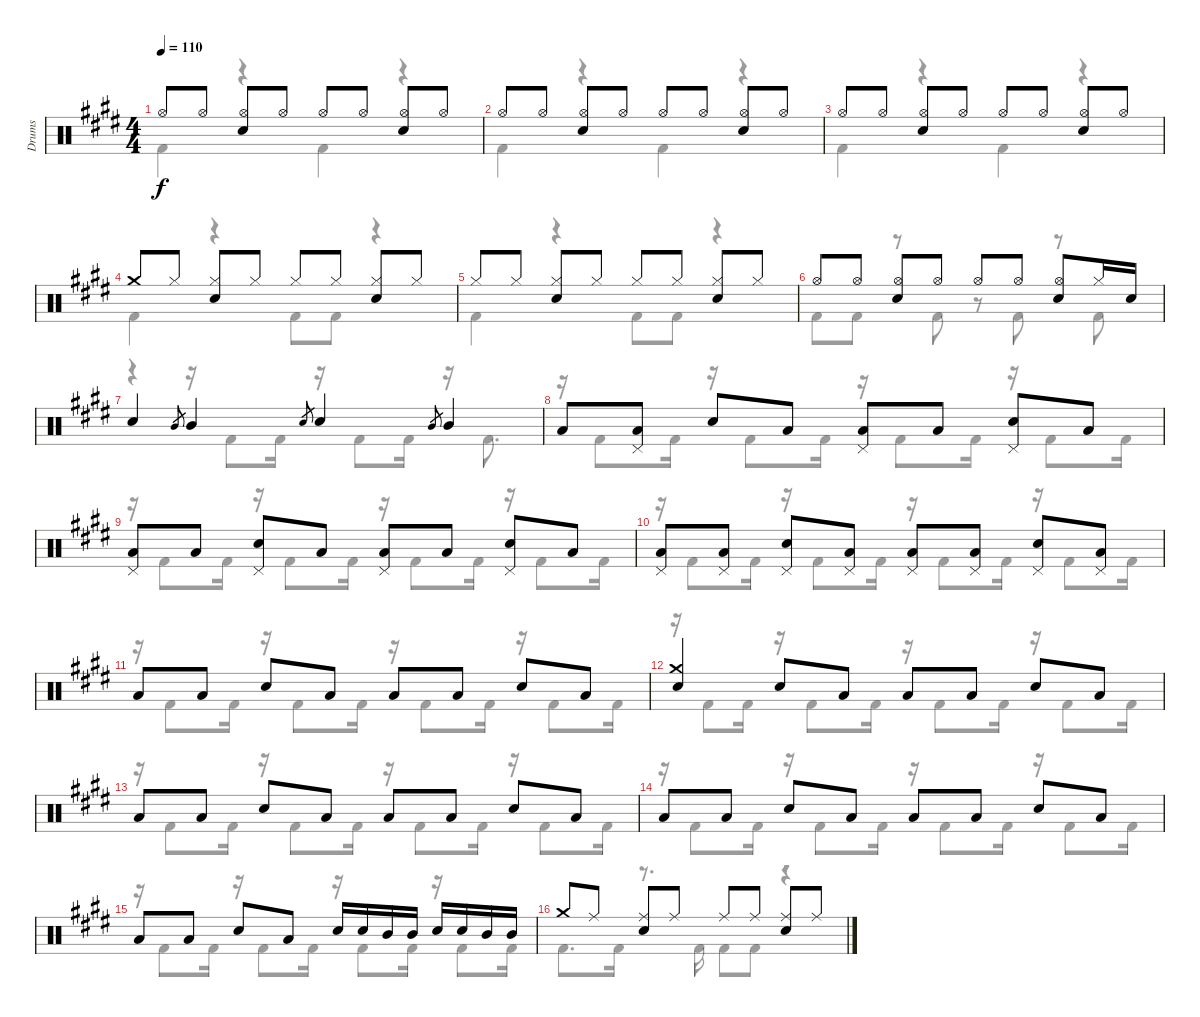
\track ("Drums" "Drums") {instrument percussion}
\staff {score}
\articulation defaults
\voice
\ts (4 4)
\tempo 110
\clef neutral
\ks e "Hi-Hat (open)".8{dy f} "Hi-Hat (open)".8
("Hi-Hat (open)" "Snare (hit) 2").8 "Hi-Hat (open)".8 "Hi-Hat (open)".8 "Hi-Hat (open)".8 ("Hi-Hat (open)" "Snare (hit) 2").8 "Hi-Hat (open)".8 |
"Hi-Hat (open)".8 "Hi-Hat (open)".8 ("Hi-Hat (open)" "Snare (hit) 2").8 "Hi-Hat (open)".8 "Hi-Hat (open)".8 "Hi-Hat (open)".8 ("Hi-Hat (open)" "Snare (hit) 2").8 "Hi-Hat (open)".8 |
"Hi-Hat (open)".8 "Hi-Hat (open)".8 ("Hi-Hat (open)" "Snare (hit) 2").8 "Hi-Hat (open)".8 "Hi-Hat (open)".8 "Hi-Hat (open)".8 ("Hi-Hat (open)" "Snare (hit) 2").8 "Hi-Hat (open)".8 |
"Crash medium (hit)".8 "Hi-Hat (closed)".8 ("Hi-Hat (closed)" "Snare (hit) 2").8 "Hi-Hat (closed)".8 "Hi-Hat (closed)".8 "Hi-Hat (closed)".8 ("Hi-Hat (closed)" "Snare (hit) 2").8 "Hi-Hat (closed)".8 |
"Hi-Hat (closed)".8 "Hi-Hat (closed)".8 ("Hi-Hat (closed)" "Snare (hit) 2").8 "Hi-Hat (closed)".8 "Hi-Hat (closed)".8 "Hi-Hat (closed)".8 ("Hi-Hat (closed)" "Snare (hit) 2").8 "Hi-Hat (closed)".8 |
"Hi-Hat (open)".8 "Hi-Hat (open)".8 ("Hi-Hat (open)" "Snare (hit) 2").8 "Hi-Hat (open)".8 "Hi-Hat (open)".8 "Hi-Hat (open)".8 ("Hi-Hat (open)" "Snare (hit) 2").8 "Hi-Hat (closed)".16 "Snare (hit) 2".16 |
"Snare (hit) 2".4 "Mid Tom (hit)".8{gr} "Mid Tom (hit)".4 "Snare (hit) 2".8{gr} "Snare (hit) 2".4 "Mid Tom (hit)".8{gr} "Mid Tom (hit)".4 |
"Low Tom (hit)".8 ("Low Tom (hit)" "Pedal Hi-Hat (hit)").8 "Snare (hit) 2".8 "Low Tom (hit)".8 ("Low Tom (hit)" "Pedal Hi-Hat (hit)").8 "Low Tom (hit)".8 ("Snare (hit) 2" "Pedal Hi-Hat (hit)").8 "Low Tom (hit)".8 |
("Low Tom (hit)" "Pedal Hi-Hat (hit)").8 "Low Tom (hit)".8 ("Snare (hit) 2" "Pedal Hi-Hat (hit)").8 "Low Tom (hit)".8 ("Low Tom (hit)" "Pedal Hi-Hat (hit)").8 "Low Tom (hit)".8 ("Snare (hit) 2" "Pedal Hi-Hat (hit)").8 "Low Tom (hit)".8 |
("Low Tom (hit)" "Pedal Hi-Hat (hit)").8 ("Low Tom (hit)" "Pedal Hi-Hat (hit)").8 ("Snare (hit) 2" "Pedal Hi-Hat (hit)").8 ("Low Tom (hit)" "Pedal Hi-Hat (hit)").8 ("Low Tom (hit)" "Pedal Hi-Hat (hit)").8 ("Low Tom (hit)" "Pedal Hi-Hat (hit)").8 ("Snare (hit) 2" "Pedal Hi-Hat (hit)").8 ("Low Tom (hit)" "Pedal Hi-Hat (hit)").8 |
"Low Tom (hit)".8 "Low Tom (hit)".8 "Snare (hit) 2".8 "Low Tom (hit)".8 "Low Tom (hit)".8 "Low Tom (hit)".8 "Snare (hit) 2".8 "Low Tom (hit)".8 |
("Crash medium (hit)" "Snare (hit) 2").4 "Snare (hit) 2".8 "Low Tom (hit)".8 "Low Tom (hit)".8 "Low Tom (hit)".8 "Snare (hit) 2".8 "Low Tom (hit)".8 |
"Low Tom (hit)".8 "Low Tom (hit)".8 "Snare (hit) 2".8 "Low Tom (hit)".8 "Low Tom (hit)".8 "Low Tom (hit)".8 "Snare (hit) 2".8 "Low Tom (hit)".8 |
"Low Tom (hit)".8 "Low Tom (hit)".8 "Snare (hit) 2".8 "Low Tom (hit)".8 "Low Tom (hit)".8 "Low Tom (hit)".8 "Snare (hit) 2".8 "Low Tom (hit)".8 |
"Low Tom (hit)".8 "Low Tom (hit)".8 "Snare (hit) 2".8 "Low Tom (hit)".8 "Snare (hit) 2".16 "Snare (hit) 2".16 "Mid Tom (hit)".16 "Mid Tom (hit)".16 "Snare (hit) 2".16 "Snare (hit) 2".16 "Mid Tom (hit)".16 "Mid Tom (hit)".16 |
"Crash medium (hit)".8 "Ride (middle)".8 ("Ride (middle)" "Snare (hit) 2").8 "Ride (middle)".8 "Ride (middle)".8 "Ride (middle)".8 ("Ride (middle)" "Snare (hit) 2").8 "Ride (middle)".8
\voice
\clef neutral
\ottava regular
\simile none
\ks e "Kick (hit) 2".4{dy f}
r.4 "Kick (hit) 2".4 r.4 |
"Kick (hit) 2".4 r.4 "Kick (hit) 2".4 r.4 |
"Kick (hit) 2".4 r.4 "Kick (hit) 2".4 r.4 |
"Kick (hit) 2".4 r.4 "Kick (hit) 2".8 "Kick (hit) 2".8 r.4 |
"Kick (hit) 2".4 r.4 "Kick (hit) 2".8 "Kick (hit) 2".8 r.4 |
"Kick (hit) 2".8 "Kick (hit) 2".8 r.8 "Kick (hit) 2".8 r.8 "Kick (hit) 2".8 r.8 "Kick (hit) 2".8 |
r.4 r.16 "Kick (hit) 2".8 "Kick (hit) 2".16 r.16 "Kick (hit) 2".8 "Kick (hit) 2".16 r.16 "Kick (hit) 2".8{d} |
r.16 "Kick (hit) 2".8 "Kick (hit) 2".16 r.16 "Kick (hit) 2".8 "Kick (hit) 2".16 r.16 "Kick (hit) 2".8 "Kick (hit) 2".16 r.16 "Kick (hit) 2".8 "Kick (hit) 2".16 |
r.16 "Kick (hit) 2".8 "Kick (hit) 2".16 r.16 "Kick (hit) 2".8 "Kick (hit) 2".16 r.16 "Kick (hit) 2".8 "Kick (hit) 2".16 r.16 "Kick (hit) 2".8 "Kick (hit) 2".16 |
r.16 "Kick (hit) 2".8 "Kick (hit) 2".16 r.16 "Kick (hit) 2".8 "Kick (hit) 2".16 r.16 "Kick (hit) 2".8 "Kick (hit) 2".16 r.16 "Kick (hit) 2".8 "Kick (hit) 2".16 |
r.16 "Kick (hit) 2".8 "Kick (hit) 2".16 r.16 "Kick (hit) 2".8 "Kick (hit) 2".16 r.16 "Kick (hit) 2".8 "Kick (hit) 2".16 r.16 "Kick (hit) 2".8 "Kick (hit) 2".16 |
r.16 "Kick (hit) 2".8 "Kick (hit) 2".16 r.16 "Kick (hit) 2".8 "Kick (hit) 2".16 r.16 "Kick (hit) 2".8 "Kick (hit) 2".16 r.16 "Kick (hit) 2".8 "Kick (hit) 2".16 |
r.16 "Kick (hit) 2".8 "Kick (hit) 2".16 r.16 "Kick (hit) 2".8 "Kick (hit) 2".16 r.16 "Kick (hit) 2".8 "Kick (hit) 2".16 r.16 "Kick (hit) 2".8 "Kick (hit) 2".16 |
r.16 "Kick (hit) 2".8 "Kick (hit) 2".16 r.16 "Kick (hit) 2".8 "Kick (hit) 2".16 r.16 "Kick (hit) 2".8 "Kick (hit) 2".16 r.16 "Kick (hit) 2".8 "Kick (hit) 2".16 |
r.16 "Kick (hit) 2".8 "Kick (hit) 2".16 r.16 "Kick (hit) 2".8 "Kick (hit) 2".16 r.16 "Kick (hit) 2".8 "Kick (hit) 2".16 r.16 "Kick (hit) 2".8 "Kick (hit) 2".16 |
"Kick (hit) 2".8{d} "Kick (hit) 2".16 r.8{d} "Kick (hit) 2".16 "Kick (hit) 2".8 "Kick (hit) 2".8 r.4
